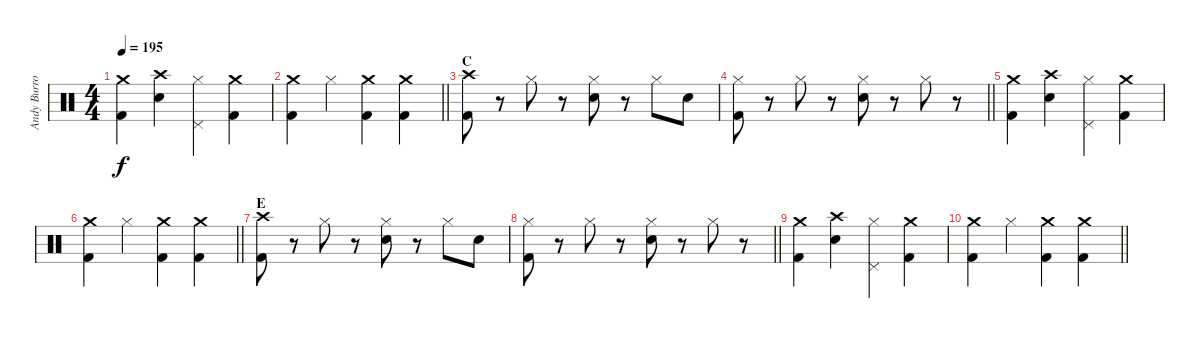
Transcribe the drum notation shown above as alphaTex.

\track ("Andy Burrows (drums)" "Andy Burro") {instrument percussion}
\staff {score}
\articulation defaults
\ts (4 4)
\section ("" "")
\tempo 195
\clef neutral
\ks c
("Crash medium (hit)" "Kick (hit) 2").4{dy f} ("Crash high (hit)" "Electric Snare (hit)").4 ("Pedal Hi-Hat (hit)" "Hi-Hat (closed)").4 ("Crash medium (hit)" "Kick (hit) 2").4 |
\barLineRight lightlight
("Crash medium (hit)" "Kick (hit) 2").4 "Hi-Hat (closed)".4 ("Crash medium (hit)" "Kick (hit) 2").4 ("Crash medium (hit)" "Kick (hit) 2").4 |
\section ("" "C")
("Crash high (hit)" "Kick (hit) 2").8 r.8 "Hi-Hat (closed)".8 r.8 ("Hi-Hat (closed)" "Electric Snare (hit)").8 r.8 "Hi-Hat (closed)".8 "Electric Snare (hit)".8 |
\barLineRight lightlight
("Hi-Hat (closed)" "Kick (hit) 2").8 r.8 "Hi-Hat (closed)".8 r.8 ("Hi-Hat (closed)" "Electric Snare (hit)").8 r.8 "Hi-Hat (closed)".8 r.8 |
\section ("" "")
("Crash medium (hit)" "Kick (hit) 2").4 ("Crash high (hit)" "Electric Snare (hit)").4 ("Pedal Hi-Hat (hit)" "Hi-Hat (closed)").4 ("Crash medium (hit)" "Kick (hit) 2").4 |
\barLineRight lightlight
("Crash medium (hit)" "Kick (hit) 2").4 "Hi-Hat (closed)".4 ("Crash medium (hit)" "Kick (hit) 2").4 ("Crash medium (hit)" "Kick (hit) 2").4 |
\section ("" "E")
("Crash high (hit)" "Kick (hit) 2").8 r.8 "Hi-Hat (closed)".8 r.8 ("Hi-Hat (closed)" "Electric Snare (hit)").8 r.8 "Hi-Hat (closed)".8 "Electric Snare (hit)".8 |
\barLineRight lightlight
("Hi-Hat (closed)" "Kick (hit) 2").8 r.8 "Hi-Hat (closed)".8 r.8 ("Hi-Hat (closed)" "Electric Snare (hit)").8 r.8 "Hi-Hat (closed)".8 r.8 |
\section ("" "")
("Crash medium (hit)" "Kick (hit) 2").4 ("Crash high (hit)" "Electric Snare (hit)").4 ("Pedal Hi-Hat (hit)" "Hi-Hat (closed)").4 ("Crash medium (hit)" "Kick (hit) 2").4 |
\barLineRight lightlight
("Crash medium (hit)" "Kick (hit) 2").4 "Hi-Hat (closed)".4 ("Crash medium (hit)" "Kick (hit) 2").4 ("Crash medium (hit)" "Kick (hit) 2").4
